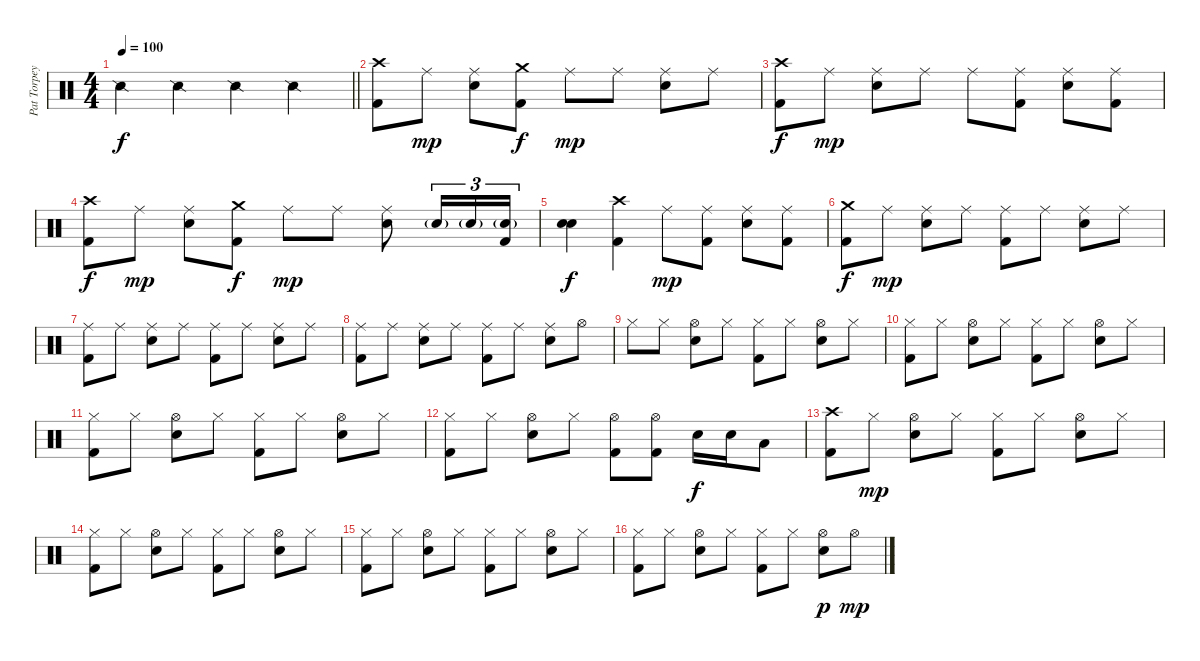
\track ("Pat Torpey" "Pat Torpey") {instrument percussion}
\staff {score}
\articulation defaults
\ts (4 4)
\tempo 100
\clef neutral
\barLineRight lightlight
\ks c "Snare (side stick) 2".4{dy f} "Snare (side stick) 2".4 "Snare (side stick) 2".4 "Snare (side stick) 2".4
|
("Crash high (hit)" "Kick (hit) 2").8 "Ride (middle)".8{dy mp} ("Ride (middle)" "Electric Snare (hit)").8 ("Crash medium (hit)" "Kick (hit) 2").8{dy f} "Ride (middle)".8{dy mp} "Ride (middle)".8 ("Ride (middle)" "Electric Snare (hit)").8 "Ride (middle)".8 |
("Crash high (hit)" "Kick (hit) 2").8{dy f} "Ride (middle)".8{dy mp} ("Ride (middle)" "Electric Snare (hit)").8 "Ride (middle)".8 "Ride (middle)".8 ("Ride (middle)" "Kick (hit) 2").8 ("Ride (middle)" "Electric Snare (hit)").8 ("Ride (middle)" "Kick (hit) 2").8 |
("Crash high (hit)" "Kick (hit) 2").8{dy f} "Ride (middle)".8{dy mp} ("Ride (middle)" "Electric Snare (hit)").8 ("Crash medium (hit)" "Kick (hit) 2").8{dy f} "Ride (middle)".8{dy mp} "Ride (middle)".8 ("Ride (middle)" "Electric Snare (hit)").8 "Electric Snare (hit)"{g}.16{tu (3 2)} "Electric Snare (hit)"{g}.16{tu (3 2)} ("Electric Snare (hit)"{g} "Kick (hit) 2").16{tu (3 2)} |
("Electric Snare (hit)" "Electric Snare (hit)").4{bd 60 dy f} ("Crash high (hit)" "Kick (hit) 2").4 "Ride (middle)".8{dy mp} ("Ride (middle)" "Kick (hit) 2").8 ("Ride (middle)" "Electric Snare (hit)").8 ("Ride (middle)" "Kick (hit) 2").8 |
("Crash medium (hit)" "Kick (hit) 2").8{dy f} "Ride (middle)".8{dy mp} ("Ride (middle)" "Electric Snare (hit)").8 "Ride (middle)".8 ("Ride (middle)" "Kick (hit) 2").8 "Ride (middle)".8 ("Ride (middle)" "Electric Snare (hit)").8 "Ride (middle)".8 |
("Ride (middle)" "Kick (hit) 2").8 "Ride (middle)".8 ("Ride (middle)" "Electric Snare (hit)").8 "Ride (middle)".8 ("Ride (middle)" "Kick (hit) 2").8 "Ride (middle)".8 ("Ride (middle)" "Electric Snare (hit)").8 "Ride (middle)".8 |
("Ride (middle)" "Kick (hit) 2").8 "Ride (middle)".8 ("Ride (middle)" "Electric Snare (hit)").8 "Ride (middle)".8 ("Ride (middle)" "Kick (hit) 2").8 "Ride (middle)".8 ("Ride (middle)" "Electric Snare (hit)").8 "Hi-Hat (open)".8 |
"Hi-Hat (closed)".8 "Hi-Hat (closed)".8 ("Hi-Hat (open)" "Electric Snare (hit)").8 "Hi-Hat (closed)".8 ("Hi-Hat (closed)" "Kick (hit) 2").8 "Hi-Hat (closed)".8 ("Hi-Hat (open)" "Electric Snare (hit)").8 "Hi-Hat (closed)".8 |
("Hi-Hat (closed)" "Kick (hit) 2").8 "Hi-Hat (closed)".8 ("Hi-Hat (open)" "Electric Snare (hit)").8 "Hi-Hat (closed)".8 ("Hi-Hat (closed)" "Kick (hit) 2").8 "Hi-Hat (closed)".8 ("Hi-Hat (open)" "Electric Snare (hit)").8 "Hi-Hat (closed)".8 |
("Hi-Hat (closed)" "Kick (hit) 2").8 "Hi-Hat (closed)".8 ("Hi-Hat (open)" "Electric Snare (hit)").8 "Hi-Hat (closed)".8 ("Hi-Hat (closed)" "Kick (hit) 2").8 "Hi-Hat (closed)".8 ("Hi-Hat (open)" "Electric Snare (hit)").8 "Hi-Hat (closed)".8 |
("Hi-Hat (closed)" "Kick (hit) 2").8 "Hi-Hat (closed)".8 ("Hi-Hat (open)" "Electric Snare (hit)").8 "Hi-Hat (closed)".8 ("Hi-Hat (open)" "Kick (hit) 2").8 ("Hi-Hat (open)" "Kick (hit) 2").8 "Electric Snare (hit)".16{dy f} "Electric Snare (hit)".16 "Low Tom (hit)".8 |
("Crash high (hit)" "Kick (hit) 2").8 "Hi-Hat (closed)".8{dy mp} ("Hi-Hat (open)" "Electric Snare (hit)").8 "Hi-Hat (closed)".8 ("Hi-Hat (closed)" "Kick (hit) 2").8 "Hi-Hat (closed)".8 ("Hi-Hat (open)" "Electric Snare (hit)").8 "Hi-Hat (closed)".8 |
("Hi-Hat (closed)" "Kick (hit) 2").8 "Hi-Hat (closed)".8 ("Hi-Hat (open)" "Electric Snare (hit)").8 "Hi-Hat (closed)".8 ("Hi-Hat (closed)" "Kick (hit) 2").8 "Hi-Hat (closed)".8 ("Hi-Hat (open)" "Electric Snare (hit)").8 "Hi-Hat (closed)".8 |
("Hi-Hat (closed)" "Kick (hit) 2").8 "Hi-Hat (closed)".8 ("Hi-Hat (open)" "Electric Snare (hit)").8 "Hi-Hat (closed)".8 ("Hi-Hat (closed)" "Kick (hit) 2").8 "Hi-Hat (closed)".8 ("Hi-Hat (open)" "Electric Snare (hit)").8 "Hi-Hat (closed)".8 |
("Hi-Hat (closed)" "Kick (hit) 2").8 "Hi-Hat (closed)".8 ("Hi-Hat (open)" "Electric Snare (hit)").8 "Hi-Hat (closed)".8 ("Hi-Hat (closed)" "Kick (hit) 2").8 "Hi-Hat (closed)".8 ("Hi-Hat (open)" "Electric Snare (hit)").8{dy p} "Hi-Hat (open)".8{dy mp}
